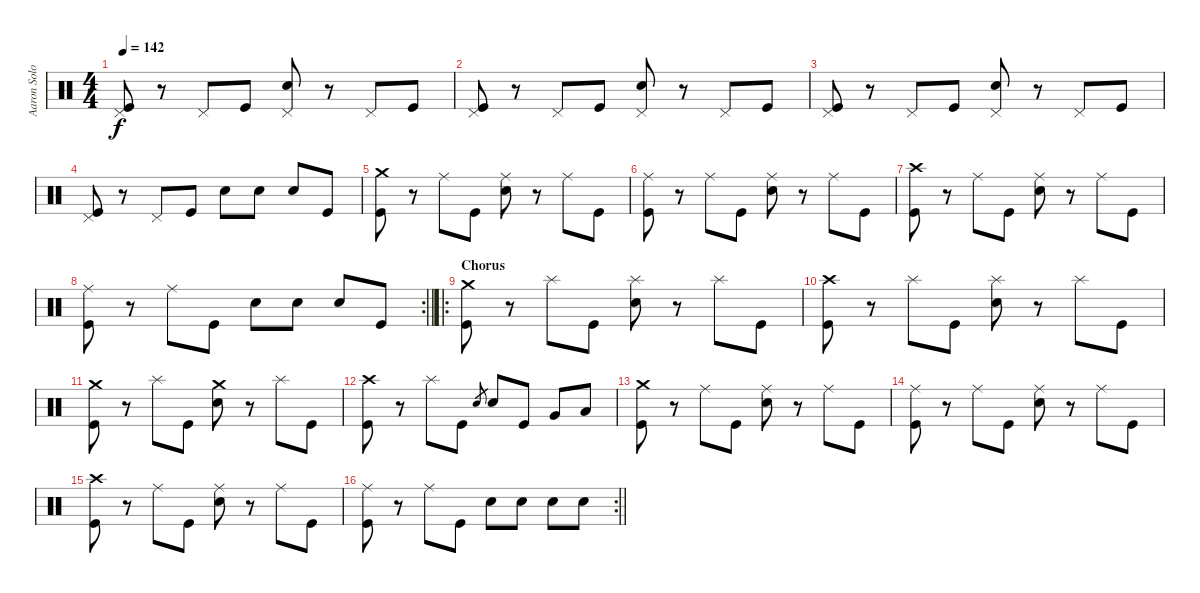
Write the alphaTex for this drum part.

\track ("Aaron Solowoniuk" "Aaron Solo") {instrument percussion}
\staff {score}
\articulation defaults
\ts (4 4)
\tempo 142
\clef neutral
\ks c
("Pedal Hi-Hat (hit)" "Kick (hit)").8{dy f} r.8 "Pedal Hi-Hat (hit)".8 "Kick (hit)".8 ("Pedal Hi-Hat (hit)" "Electric Snare (hit)").8 r.8 "Pedal Hi-Hat (hit)".8 "Kick (hit)".8 |
("Pedal Hi-Hat (hit)" "Kick (hit)").8 r.8 "Pedal Hi-Hat (hit)".8 "Kick (hit)".8 ("Pedal Hi-Hat (hit)" "Electric Snare (hit)").8 r.8 "Pedal Hi-Hat (hit)".8 "Kick (hit)".8 |
("Pedal Hi-Hat (hit)" "Kick (hit)").8 r.8 "Pedal Hi-Hat (hit)".8 "Kick (hit)".8 ("Pedal Hi-Hat (hit)" "Electric Snare (hit)").8 r.8 "Pedal Hi-Hat (hit)".8 "Kick (hit)".8 |
("Pedal Hi-Hat (hit)" "Kick (hit)").8 r.8 "Pedal Hi-Hat (hit)".8 "Kick (hit)".8 "Electric Snare (hit)".8 "Electric Snare (hit)".8 "Electric Snare (hit)".8 "Kick (hit)".8 |
("Crash medium (hit)" "Kick (hit)").8 r.8 "Ride (middle)".8 "Kick (hit)".8 ("Ride (middle)" "Electric Snare (hit)").8 r.8 "Ride (middle)".8 "Kick (hit)".8 |
("Ride (middle)" "Kick (hit)").8 r.8 "Ride (middle)".8 "Kick (hit)".8 ("Ride (middle)" "Electric Snare (hit)").8 r.8 "Ride (middle)".8 "Kick (hit)".8 |
("Crash high (hit)" "Kick (hit)").8 r.8 "Ride (middle)".8 "Kick (hit)".8 ("Ride (middle)" "Electric Snare (hit)").8 r.8 "Ride (middle)".8 "Kick (hit)".8 |
\rc 2
\barLineRight lightlight
("Ride (middle)" "Kick (hit)").8 r.8 "Ride (middle)".8 "Kick (hit)".8 "Electric Snare (hit)".8 "Electric Snare (hit)".8 "Electric Snare (hit)".8 "Kick (hit)".8 |
\ro
\section ("" "Chorus")
("Crash medium (hit)" "Kick (hit)").8 r.8 "Splash (hit)".8 "Kick (hit)".8 ("Splash (hit)" "Electric Snare (hit)").8 r.8 "Splash (hit)".8 "Kick (hit)".8 |
("Crash high (hit)" "Kick (hit)").8 r.8 "Splash (hit)".8 "Kick (hit)".8 ("Splash (hit)" "Electric Snare (hit)").8 r.8 "Splash (hit)".8 "Kick (hit)".8 |
("Crash medium (hit)" "Kick (hit)").8 r.8 "Splash (hit)".8 "Kick (hit)".8 ("Crash medium (hit)" "Electric Snare (hit)").8 r.8 "Splash (hit)".8 "Kick (hit)".8 |
("Crash high (hit)" "Kick (hit)").8 r.8 "Splash (hit)".8 "Kick (hit)".8 "Electric Snare (hit)".8{gr} "Electric Snare (hit)".8 "Kick (hit)".8 "Very Low Tom (hit)".8 "Low Floor Tom (hit)".8 |
("Crash medium (hit)" "Kick (hit)").8 r.8 "Ride (middle)".8 "Kick (hit)".8 ("Ride (middle)" "Electric Snare (hit)").8 r.8 "Ride (middle)".8 "Kick (hit)".8 |
("Ride (middle)" "Kick (hit)").8 r.8 "Ride (middle)".8 "Kick (hit)".8 ("Ride (middle)" "Electric Snare (hit)").8 r.8 "Ride (middle)".8 "Kick (hit)".8 |
("Crash high (hit)" "Kick (hit)").8 r.8 "Ride (middle)".8 "Kick (hit)".8 ("Ride (middle)" "Electric Snare (hit)").8 r.8 "Ride (middle)".8 "Kick (hit)".8 |
\rc 2
\barLineRight lightlight
("Ride (middle)" "Kick (hit)").8 r.8 "Ride (middle)".8 "Kick (hit)".8 "Electric Snare (hit)".8 "Electric Snare (hit)".8 "Electric Snare (hit)".8 "Electric Snare (hit)".8
